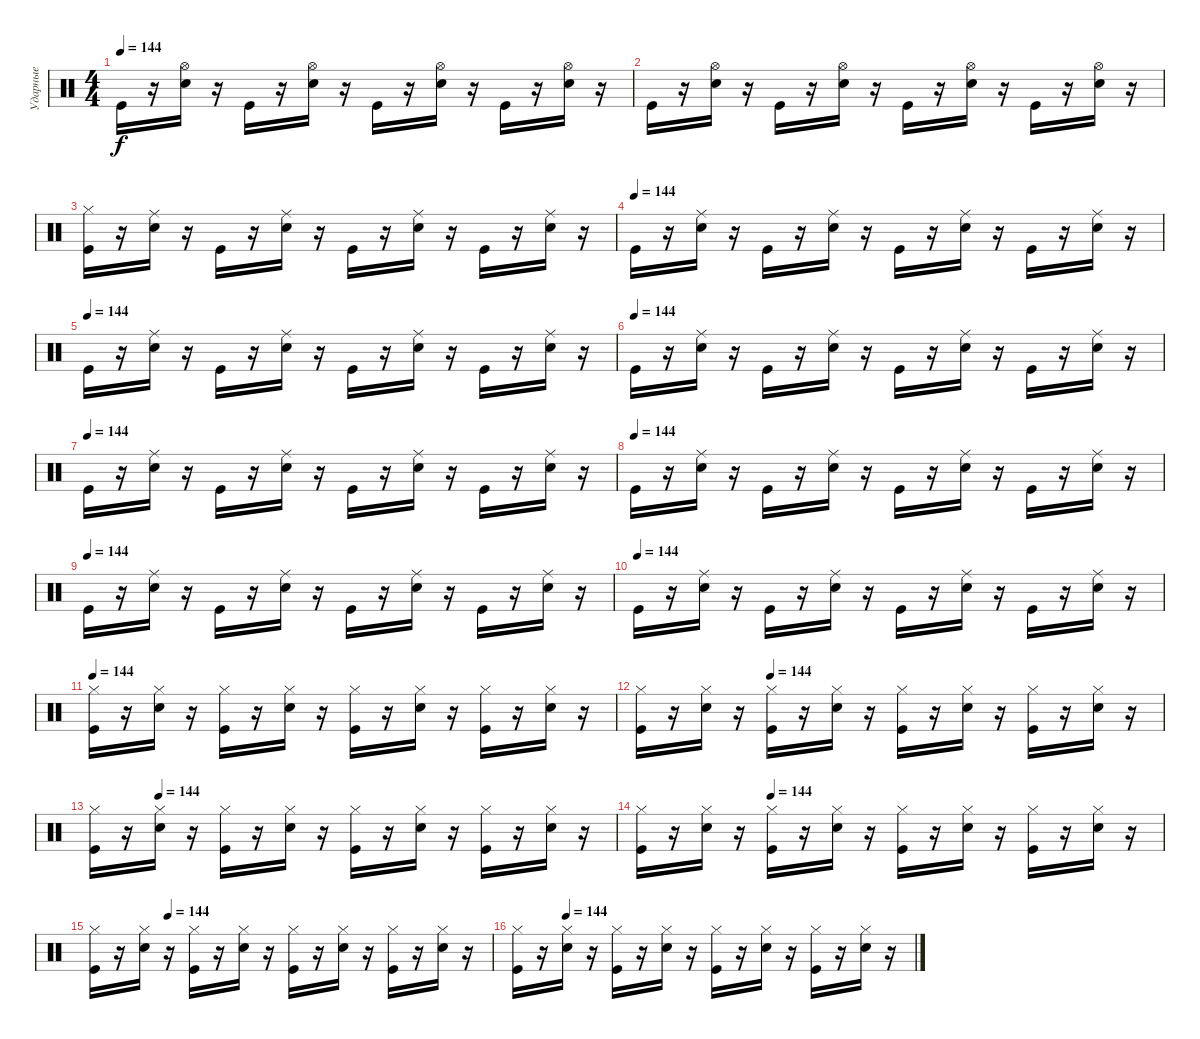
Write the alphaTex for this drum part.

\track ("Ударные" "Ударные") {instrument percussion}
\staff {score}
\articulation defaults
\ts (4 4)
\tempo 144
\clef neutral
\ks c "Kick (hit)".16{dy f}
r.16 ("Snare (hit) 2" "Hi-Hat (open)").16 r.16 "Kick (hit)".16 r.16 ("Snare (hit) 2" "Hi-Hat (open)").16 r.16 "Kick (hit)".16 r.16 ("Snare (hit) 2" "Hi-Hat (open)").16 r.16 "Kick (hit)".16 r.16 ("Snare (hit) 2" "Hi-Hat (open)").16 r.16 |
"Kick (hit)".16 r.16 ("Snare (hit) 2" "Hi-Hat (open)").16 r.16 "Kick (hit)".16 r.16 ("Snare (hit) 2" "Hi-Hat (open)").16 r.16 "Kick (hit)".16 r.16 ("Snare (hit) 2" "Hi-Hat (open)").16 r.16 "Kick (hit)".16 r.16 ("Snare (hit) 2" "Hi-Hat (open)").16 r.16 |
("Kick (hit)" "Hi-Hat (closed)").16 r.16 ("Snare (hit) 2" "Ride (middle)").16 r.16 "Kick (hit)".16 r.16 ("Snare (hit) 2" "Ride (middle)").16 r.16 "Kick (hit)".16 r.16 ("Snare (hit) 2" "Ride (middle)").16 r.16 "Kick (hit)".16 r.16 ("Snare (hit) 2" "Ride (middle)").16 r.16 |
\tempo (144)
"Kick (hit)".16 r.16 ("Snare (hit) 2" "Ride (middle)").16 r.16 "Kick (hit)".16 r.16 ("Snare (hit) 2" "Ride (middle)").16 r.16 "Kick (hit)".16 r.16 ("Snare (hit) 2" "Ride (middle)").16 r.16 "Kick (hit)".16 r.16 ("Snare (hit) 2" "Ride (middle)").16 r.16 |
\tempo (144)
"Kick (hit)".16 r.16 ("Snare (hit) 2" "Ride (middle)").16 r.16 "Kick (hit)".16 r.16 ("Snare (hit) 2" "Ride (middle)").16 r.16 "Kick (hit)".16 r.16 ("Snare (hit) 2" "Ride (middle)").16 r.16 "Kick (hit)".16 r.16 ("Snare (hit) 2" "Ride (middle)").16 r.16 |
\tempo (144)
"Kick (hit)".16 r.16 ("Snare (hit) 2" "Ride (middle)").16 r.16 "Kick (hit)".16 r.16 ("Snare (hit) 2" "Ride (middle)").16 r.16 "Kick (hit)".16 r.16 ("Snare (hit) 2" "Ride (middle)").16 r.16 "Kick (hit)".16 r.16 ("Snare (hit) 2" "Ride (middle)").16 r.16 |
\tempo (144)
"Kick (hit)".16 r.16 ("Snare (hit) 2" "Ride (middle)").16 r.16 "Kick (hit)".16 r.16 ("Snare (hit) 2" "Ride (middle)").16 r.16 "Kick (hit)".16 r.16 ("Snare (hit) 2" "Ride (middle)").16 r.16 "Kick (hit)".16 r.16 ("Snare (hit) 2" "Ride (middle)").16 r.16 |
\tempo (144)
"Kick (hit)".16 r.16 ("Snare (hit) 2" "Ride (middle)").16 r.16 "Kick (hit)".16 r.16 ("Snare (hit) 2" "Ride (middle)").16 r.16 "Kick (hit)".16 r.16 ("Snare (hit) 2" "Ride (middle)").16 r.16 "Kick (hit)".16 r.16 ("Snare (hit) 2" "Ride (middle)").16 r.16 |
\tempo (144)
"Kick (hit)".16 r.16 ("Snare (hit) 2" "Ride (middle)").16 r.16 "Kick (hit)".16 r.16 ("Snare (hit) 2" "Ride (middle)").16 r.16 "Kick (hit)".16 r.16 ("Snare (hit) 2" "Ride (middle)").16 r.16 "Kick (hit)".16 r.16 ("Snare (hit) 2" "Ride (middle)").16 r.16 |
\tempo (144)
"Kick (hit)".16 r.16 ("Snare (hit) 2" "Ride (middle)").16 r.16 "Kick (hit)".16 r.16 ("Snare (hit) 2" "Ride (middle)").16 r.16 "Kick (hit)".16 r.16 ("Snare (hit) 2" "Ride (middle)").16 r.16 "Kick (hit)".16 r.16 ("Snare (hit) 2" "Ride (middle)").16 r.16 |
\tempo 144
("Kick (hit)" "Hi-Hat (closed)").16 r.16 ("Hi-Hat (closed)" "Snare (hit) 2").16 r.16 ("Kick (hit)" "Hi-Hat (closed)").16 r.16 ("Hi-Hat (closed)" "Snare (hit) 2").16 r.16 ("Kick (hit)" "Hi-Hat (closed)").16 r.16 ("Hi-Hat (closed)" "Snare (hit) 2").16 r.16 ("Kick (hit)" "Hi-Hat (closed)").16 r.16 ("Hi-Hat (closed)" "Snare (hit) 2").16 r.16 |
\tempo (144 0.25)
("Kick (hit)" "Hi-Hat (closed)").16 r.16 ("Hi-Hat (closed)" "Snare (hit) 2").16 r.16 ("Kick (hit)" "Hi-Hat (closed)").16 r.16 ("Hi-Hat (closed)" "Snare (hit) 2").16 r.16 ("Kick (hit)" "Hi-Hat (closed)").16 r.16 ("Hi-Hat (closed)" "Snare (hit) 2").16 r.16 ("Kick (hit)" "Hi-Hat (closed)").16 r.16 ("Hi-Hat (closed)" "Snare (hit) 2").16 r.16 |
\tempo (144 0.125)
("Kick (hit)" "Hi-Hat (closed)").16 r.16 ("Hi-Hat (closed)" "Snare (hit) 2").16 r.16 ("Kick (hit)" "Hi-Hat (closed)").16 r.16 ("Hi-Hat (closed)" "Snare (hit) 2").16 r.16 ("Kick (hit)" "Hi-Hat (closed)").16 r.16 ("Hi-Hat (closed)" "Snare (hit) 2").16 r.16 ("Kick (hit)" "Hi-Hat (closed)").16 r.16 ("Hi-Hat (closed)" "Snare (hit) 2").16 r.16 |
\tempo (144 0.25)
("Kick (hit)" "Hi-Hat (closed)").16 r.16 ("Hi-Hat (closed)" "Snare (hit) 2").16 r.16 ("Kick (hit)" "Hi-Hat (closed)").16 r.16 ("Hi-Hat (closed)" "Snare (hit) 2").16 r.16 ("Kick (hit)" "Hi-Hat (closed)").16 r.16 ("Hi-Hat (closed)" "Snare (hit) 2").16 r.16 ("Kick (hit)" "Hi-Hat (closed)").16 r.16 ("Hi-Hat (closed)" "Snare (hit) 2").16 r.16 |
\tempo (144 0.1875)
("Kick (hit)" "Hi-Hat (closed)").16 r.16 ("Hi-Hat (closed)" "Snare (hit) 2").16 r.16 ("Kick (hit)" "Hi-Hat (closed)").16 r.16 ("Hi-Hat (closed)" "Snare (hit) 2").16 r.16 ("Kick (hit)" "Hi-Hat (closed)").16 r.16 ("Hi-Hat (closed)" "Snare (hit) 2").16 r.16 ("Kick (hit)" "Hi-Hat (closed)").16 r.16 ("Hi-Hat (closed)" "Snare (hit) 2").16 r.16 |
\tempo (144 0.125)
("Kick (hit)" "Hi-Hat (closed)").16 r.16 ("Hi-Hat (closed)" "Snare (hit) 2").16 r.16 ("Kick (hit)" "Hi-Hat (closed)").16 r.16 ("Hi-Hat (closed)" "Snare (hit) 2").16 r.16 ("Kick (hit)" "Hi-Hat (closed)").16 r.16 ("Hi-Hat (closed)" "Snare (hit) 2").16 r.16 ("Kick (hit)" "Hi-Hat (closed)").16 r.16 ("Hi-Hat (closed)" "Snare (hit) 2").16 r.16
